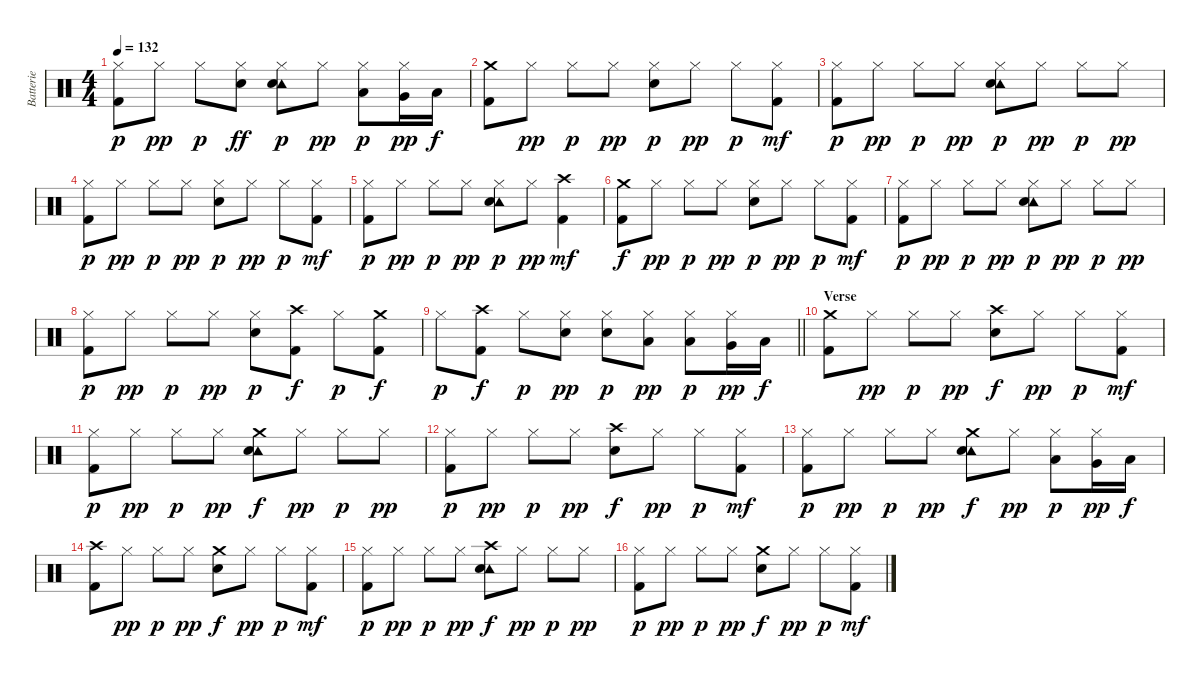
\track ("Batterie" "Batterie") {instrument percussion}
\staff {score}
\articulation defaults
\ts (4 4)
\tempo 132
\clef neutral
\ks c
("Hi-Hat (closed)" "Kick (hit) 2").8{dy p} "Hi-Hat (closed)".8{dy pp} "Hi-Hat (closed)".8{dy p} ("Hi-Hat (closed)" "Electric Snare (hit)").8{dy ff} ("Hi-Hat (closed)" "Tambourine (hit)" "Electric Snare (hit)").8{dy p} "Hi-Hat (closed)".8{dy pp} ("Hi-Hat (closed)" "Low Tom (hit)").8{dy p} ("Hi-Hat (closed)" "Very Low Tom (hit)").16{dy pp} "Low Floor Tom (hit)".16{dy f} |
("Crash medium (hit)" "Kick (hit) 2").8 "Hi-Hat (closed)".8{dy pp} "Hi-Hat (closed)".8{dy p} "Hi-Hat (closed)".8{dy pp} ("Hi-Hat (closed)" "Electric Snare (hit)").8{dy p} "Hi-Hat (closed)".8{dy pp} "Hi-Hat (closed)".8{dy p} ("Hi-Hat (closed)" "Kick (hit) 2").8{dy mf} |
("Hi-Hat (closed)" "Kick (hit) 2").8{dy p} "Hi-Hat (closed)".8{dy pp} "Hi-Hat (closed)".8{dy p} "Hi-Hat (closed)".8{dy pp} ("Hi-Hat (closed)" "Tambourine (hit)" "Electric Snare (hit)").8{dy p} "Hi-Hat (closed)".8{dy pp} "Hi-Hat (closed)".8{dy p} "Hi-Hat (closed)".8{dy pp} |
("Hi-Hat (closed)" "Kick (hit) 2").8{dy p} "Hi-Hat (closed)".8{dy pp} "Hi-Hat (closed)".8{dy p} "Hi-Hat (closed)".8{dy pp} ("Hi-Hat (closed)" "Electric Snare (hit)").8{dy p} "Hi-Hat (closed)".8{dy pp} "Hi-Hat (closed)".8{dy p} ("Hi-Hat (closed)" "Kick (hit) 2").8{dy mf} |
("Hi-Hat (closed)" "Kick (hit) 2").8{dy p} "Hi-Hat (closed)".8{dy pp} "Hi-Hat (closed)".8{dy p} "Hi-Hat (closed)".8{dy pp} ("Hi-Hat (closed)" "Tambourine (hit)" "Electric Snare (hit)").8{dy p} "Hi-Hat (closed)".8{dy pp} ("Crash high (hit)" "Kick (hit) 2").4{dy mf} |
("Crash medium (hit)" "Kick (hit) 2").8{dy f} "Hi-Hat (closed)".8{dy pp} "Hi-Hat (closed)".8{dy p} "Hi-Hat (closed)".8{dy pp} ("Hi-Hat (closed)" "Electric Snare (hit)").8{dy p} "Hi-Hat (closed)".8{dy pp} "Hi-Hat (closed)".8{dy p} ("Hi-Hat (closed)" "Kick (hit) 2").8{dy mf} |
("Hi-Hat (closed)" "Kick (hit) 2").8{dy p} "Hi-Hat (closed)".8{dy pp} "Hi-Hat (closed)".8{dy p} "Hi-Hat (closed)".8{dy pp} ("Hi-Hat (closed)" "Tambourine (hit)" "Electric Snare (hit)").8{dy p} "Hi-Hat (closed)".8{dy pp} "Hi-Hat (closed)".8{dy p} "Hi-Hat (closed)".8{dy pp} |
("Hi-Hat (closed)" "Kick (hit) 2").8{dy p} "Hi-Hat (closed)".8{dy pp} "Hi-Hat (closed)".8{dy p} "Hi-Hat (closed)".8{dy pp} ("Hi-Hat (closed)" "Electric Snare (hit)").8{dy p} ("Crash high (hit)" "Kick (hit) 2").8{dy f} "Hi-Hat (closed)".8{dy p} ("Crash medium (hit)" "Kick (hit) 2").8{dy f} |
\barLineRight lightlight "Hi-Hat (closed)".8{dy p}
("Crash high (hit)" "Kick (hit) 2").8{dy f} "Hi-Hat (closed)".8{dy p} ("Hi-Hat (closed)" "Electric Snare (hit)").8{dy pp} ("Hi-Hat (closed)" "Electric Snare (hit)").8{dy p} ("Hi-Hat (closed)" "Low Tom (hit)").8{dy pp} ("Hi-Hat (closed)" "Low Tom (hit)").8{dy p} ("Hi-Hat (closed)" "Very Low Tom (hit)").16{dy pp} "Low Floor Tom (hit)".16{dy f} |
\section ("" "Verse")
("Crash medium (hit)" "Kick (hit) 2").8 "Hi-Hat (closed)".8{dy pp} "Hi-Hat (closed)".8{dy p} "Hi-Hat (closed)".8{dy pp} ("Crash high (hit)" "Electric Snare (hit)").8{dy f} "Hi-Hat (closed)".8{dy pp} "Hi-Hat (closed)".8{dy p} ("Hi-Hat (closed)" "Kick (hit) 2").8{dy mf} |
("Hi-Hat (closed)" "Kick (hit) 2").8{dy p} "Hi-Hat (closed)".8{dy pp} "Hi-Hat (closed)".8{dy p} "Hi-Hat (closed)".8{dy pp} ("Crash medium (hit)" "Tambourine (hit)" "Electric Snare (hit)").8{dy f} "Hi-Hat (closed)".8{dy pp} "Hi-Hat (closed)".8{dy p} "Hi-Hat (closed)".8{dy pp} |
("Hi-Hat (closed)" "Kick (hit) 2").8{dy p} "Hi-Hat (closed)".8{dy pp} "Hi-Hat (closed)".8{dy p} "Hi-Hat (closed)".8{dy pp} ("Crash high (hit)" "Electric Snare (hit)").8{dy f} "Hi-Hat (closed)".8{dy pp} "Hi-Hat (closed)".8{dy p} ("Hi-Hat (closed)" "Kick (hit) 2").8{dy mf} |
("Hi-Hat (closed)" "Kick (hit) 2").8{dy p} "Hi-Hat (closed)".8{dy pp} "Hi-Hat (closed)".8{dy p} "Hi-Hat (closed)".8{dy pp} ("Crash medium (hit)" "Tambourine (hit)" "Electric Snare (hit)").8{dy f} "Hi-Hat (closed)".8{dy pp} ("Hi-Hat (closed)" "Low Tom (hit)").8{dy p} ("Hi-Hat (closed)" "Very Low Tom (hit)").16{dy pp} "Low Floor Tom (hit)".16{dy f} |
("Crash high (hit)" "Kick (hit) 2").8 "Hi-Hat (closed)".8{dy pp} "Hi-Hat (closed)".8{dy p} "Hi-Hat (closed)".8{dy pp} ("Crash medium (hit)" "Electric Snare (hit)").8{dy f} "Hi-Hat (closed)".8{dy pp} "Hi-Hat (closed)".8{dy p} ("Hi-Hat (closed)" "Kick (hit) 2").8{dy mf} |
("Hi-Hat (closed)" "Kick (hit) 2").8{dy p} "Hi-Hat (closed)".8{dy pp} "Hi-Hat (closed)".8{dy p} "Hi-Hat (closed)".8{dy pp} ("Crash high (hit)" "Tambourine (hit)" "Electric Snare (hit)").8{dy f} "Hi-Hat (closed)".8{dy pp} "Hi-Hat (closed)".8{dy p} "Hi-Hat (closed)".8{dy pp} |
("Hi-Hat (closed)" "Kick (hit) 2").8{dy p} "Hi-Hat (closed)".8{dy pp} "Hi-Hat (closed)".8{dy p} "Hi-Hat (closed)".8{dy pp} ("Crash medium (hit)" "Electric Snare (hit)").8{dy f} "Hi-Hat (closed)".8{dy pp} "Hi-Hat (closed)".8{dy p} ("Hi-Hat (closed)" "Kick (hit) 2").8{dy mf}
